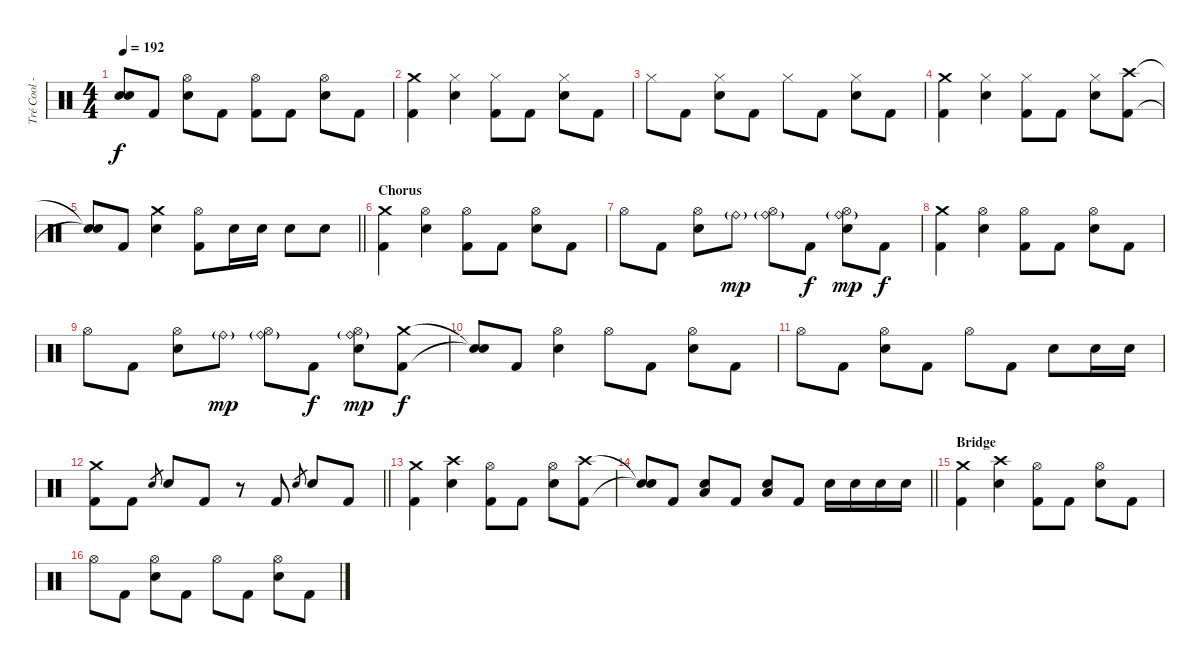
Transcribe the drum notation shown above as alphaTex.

\track ("Tré Cool - Drums" "Tré Cool -") {instrument percussion}
\staff {score}
\articulation defaults
\ts (4 4)
\tempo 192
\clef neutral
\ks c
("Snare (hit)"{t} "Snare (hit)"{t}).8{dy f} "Kick (hit) 2".8 ("Hi-Hat (open)" "Electric Snare (hit)").8 "Kick (hit) 2".8 ("Hi-Hat (open)" "Kick (hit) 2").8 "Kick (hit) 2".8 ("Hi-Hat (open)" "Electric Snare (hit)").8 "Kick (hit) 2".8 |
("Crash medium (hit)" "Kick (hit) 2").4 ("Hi-Hat (closed)" "Electric Snare (hit)").4 ("Hi-Hat (closed)" "Kick (hit) 2").8 "Kick (hit) 2".8 ("Hi-Hat (closed)" "Electric Snare (hit)").8 "Kick (hit) 2".8 |
"Hi-Hat (closed)".8 "Kick (hit) 2".8 ("Hi-Hat (closed)" "Electric Snare (hit)").8 "Kick (hit) 2".8 "Hi-Hat (closed)".8 "Kick (hit) 2".8 ("Hi-Hat (closed)" "Electric Snare (hit)").8 "Kick (hit) 2".8 |
("Crash medium (hit)" "Kick (hit) 2").4 ("Hi-Hat (closed)" "Electric Snare (hit)").4 ("Hi-Hat (closed)" "Kick (hit) 2").8 "Kick (hit) 2".8 ("Hi-Hat (closed)" "Electric Snare (hit)").8 ("Crash high (hit)" "Kick (hit) 2").8 |
\barLineRight lightlight
("Snare (hit)"{t} "Snare (hit)"{t}).8 "Kick (hit) 2".8 ("Crash medium (hit)" "Electric Snare (hit)").4 ("Hi-Hat (open)" "Kick (hit) 2").8 "Electric Snare (hit)".16 "Electric Snare (hit)".16 "Electric Snare (hit)".8 "Electric Snare (hit)".8 |
\section ("" "Chorus")
("Crash medium (hit)" "Kick (hit) 2").4 ("Hi-Hat (open)" "Electric Snare (hit)").4 ("Hi-Hat (open)" "Kick (hit) 2").8 "Kick (hit) 2".8 ("Hi-Hat (open)" "Electric Snare (hit)").8 "Kick (hit) 2".8 |
"Hi-Hat (open)".8 "Kick (hit) 2".8 ("Hi-Hat (open)" "Electric Snare (hit)").8 "Ride (bell)"{g}.8{dy mp} ("Hi-Hat (open)" "Ride (bell)"{g}).8 "Kick (hit) 2".8{dy f} ("Hi-Hat (open)" "Ride (bell)"{g} "Electric Snare (hit)").8{dy mp} "Kick (hit) 2".8{dy f} |
("Crash medium (hit)" "Kick (hit) 2").4 ("Hi-Hat (open)" "Electric Snare (hit)").4 ("Hi-Hat (open)" "Kick (hit) 2").8 "Kick (hit) 2".8 ("Hi-Hat (open)" "Electric Snare (hit)").8 "Kick (hit) 2".8 |
"Hi-Hat (open)".8 "Kick (hit) 2".8 ("Hi-Hat (open)" "Electric Snare (hit)").8 "Ride (bell)"{g}.8{dy mp} ("Hi-Hat (open)" "Ride (bell)"{g}).8 "Kick (hit) 2".8{dy f} ("Hi-Hat (open)" "Ride (bell)"{g} "Electric Snare (hit)").8{dy mp} ("Crash medium (hit)" "Kick (hit) 2").8{dy f} |
("Snare (hit)"{t} "Snare (hit)"{t}).8 "Kick (hit) 2".8 ("Hi-Hat (open)" "Electric Snare (hit)").4 "Hi-Hat (open)".8 "Kick (hit) 2".8 ("Hi-Hat (open)" "Electric Snare (hit)").8 "Kick (hit) 2".8 |
"Hi-Hat (open)".8 "Kick (hit) 2".8 ("Hi-Hat (open)" "Electric Snare (hit)").8 "Kick (hit) 2".8 "Hi-Hat (open)".8 "Kick (hit) 2".8 "Electric Snare (hit)".8 "Electric Snare (hit)".16 "Electric Snare (hit)".16 |
\barLineRight lightlight
("Crash medium (hit)" "Kick (hit) 2").8 "Kick (hit) 2".8 "Electric Snare (hit)".8{gr} "Electric Snare (hit)".8 "Kick (hit) 2".8 r.8 "Kick (hit) 2".8 "Electric Snare (hit)".8{gr} "Electric Snare (hit)".8 "Kick (hit) 2".8 |
("Crash medium (hit)" "Kick (hit) 2").4 ("Crash high (hit)" "Electric Snare (hit)").4 ("Hi-Hat (open)" "Kick (hit) 2").8 "Kick (hit) 2".8 ("Hi-Hat (open)" "Electric Snare (hit)").8 ("Crash high (hit)" "Kick (hit) 2").8 |
\barLineRight lightlight
("Snare (hit)"{t} "Snare (hit)"{t}).8 "Kick (hit) 2".8 ("Low Floor Tom (hit)" "Electric Snare (hit)").8 "Kick (hit) 2".8 ("Low Floor Tom (hit)" "Electric Snare (hit)").8 "Kick (hit) 2".8 "Electric Snare (hit)".16 "Electric Snare (hit)".16 "Electric Snare (hit)".16 "Electric Snare (hit)".16 |
\section ("" "Bridge")
("Crash medium (hit)" "Kick (hit) 2").4 ("Crash high (hit)" "Electric Snare (hit)").4 ("Hi-Hat (open)" "Kick (hit) 2").8 "Kick (hit) 2".8 ("Hi-Hat (open)" "Electric Snare (hit)").8 "Kick (hit) 2".8 |
"Hi-Hat (open)".8 "Kick (hit) 2".8 ("Hi-Hat (open)" "Electric Snare (hit)").8 "Kick (hit) 2".8 "Hi-Hat (open)".8 "Kick (hit) 2".8 ("Hi-Hat (open)" "Electric Snare (hit)").8 "Kick (hit) 2".8
